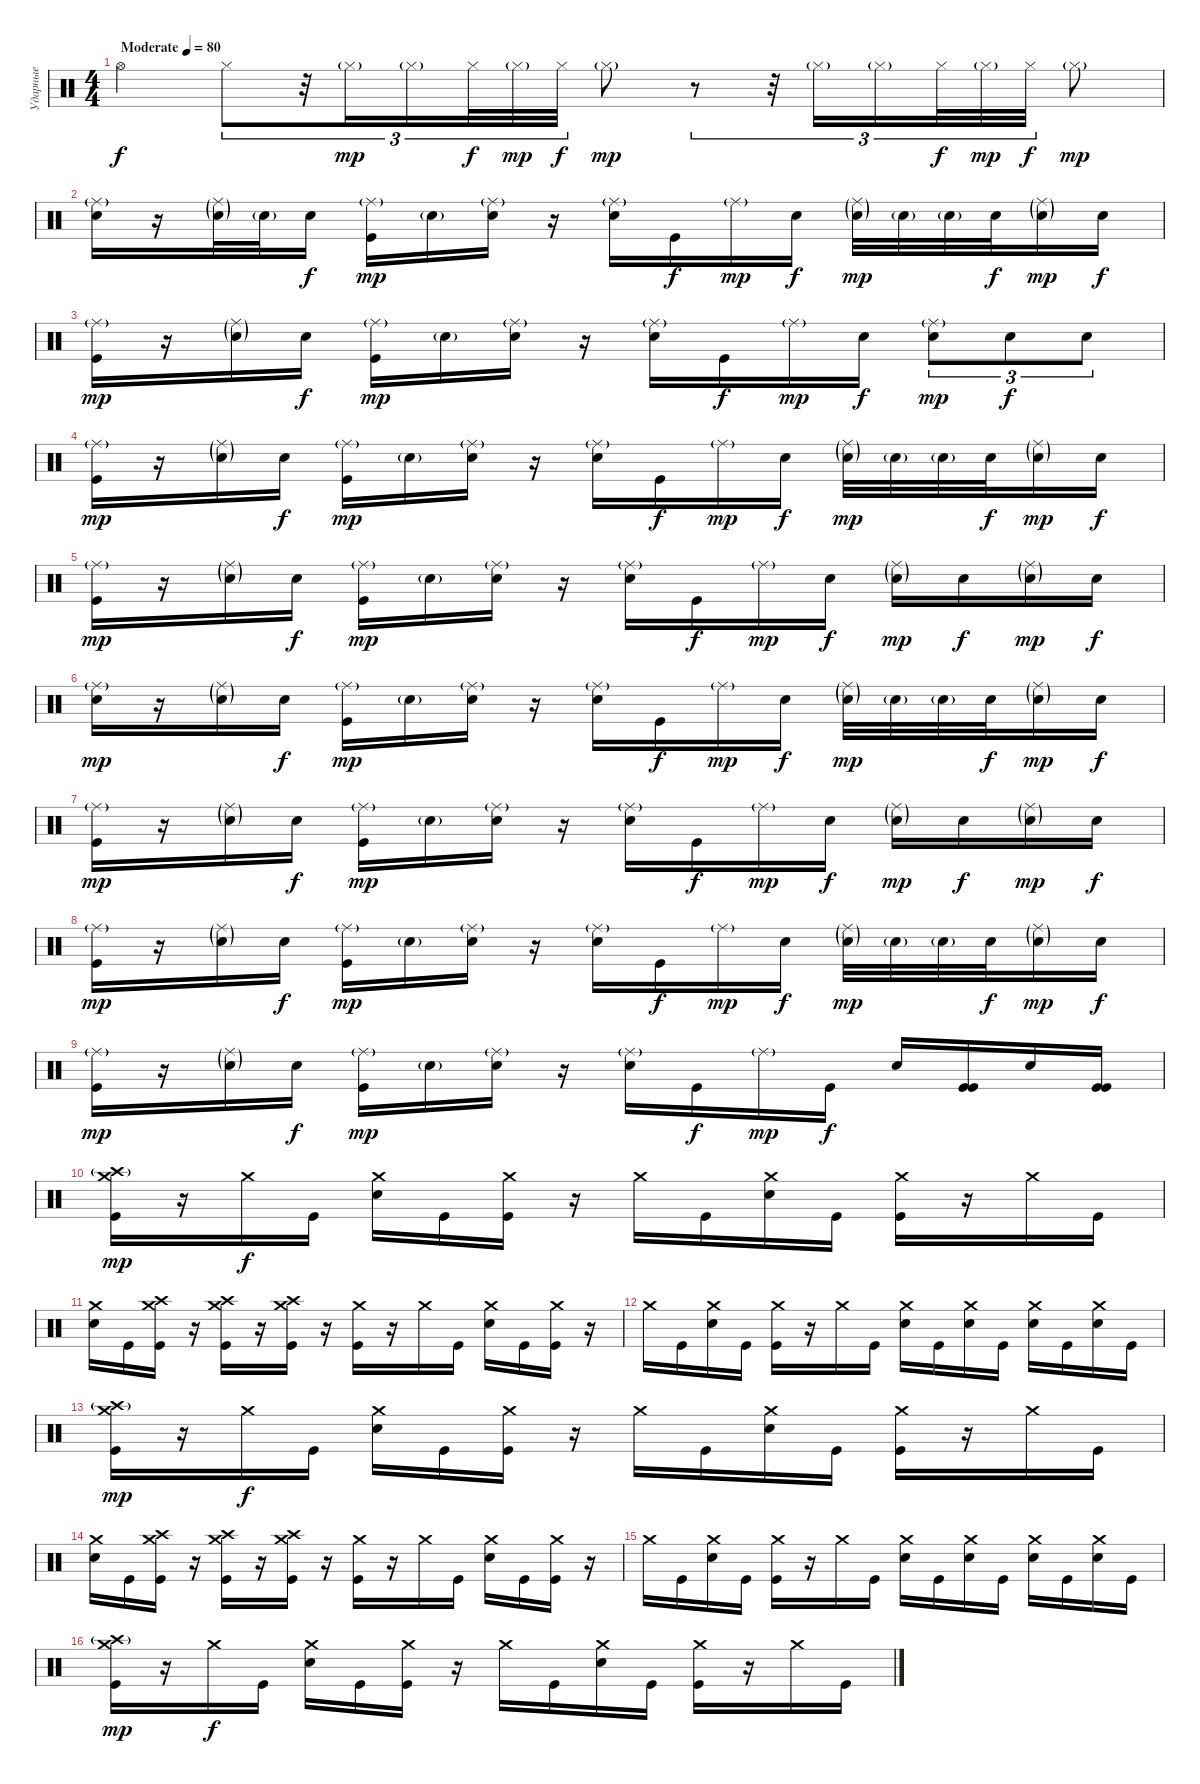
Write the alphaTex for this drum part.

\track ("Ударные" "Ударные") {instrument percussion}
\staff {score}
\articulation defaults
\ts (4 4)
\tempo (80 "Moderate")
\clef neutral
\ks c "Hi-Hat (open)".4{dy f} "Hi-Hat (closed)".8{tu (3 2)}
r.32{tu (3 2)} "Hi-Hat (closed)"{g}.16{tu (3 2) dy mp} "Hi-Hat (closed)"{g}.16{tu (3 2)} "Hi-Hat (closed)".32{tu (3 2) dy f} "Hi-Hat (closed)"{g}.32{tu (3 2) dy mp} "Hi-Hat (closed)".32{tu (3 2) dy f} "Hi-Hat (closed)"{g}.8{dy mp} r.8{tu (3 2)} r.32{tu (3 2)} "Hi-Hat (closed)"{g}.16{tu (3 2)} "Hi-Hat (closed)"{g}.16{tu (3 2)} "Hi-Hat (closed)".32{tu (3 2) dy f} "Hi-Hat (closed)"{g}.32{tu (3 2) dy mp} "Hi-Hat (closed)".32{tu (3 2) dy f} "Hi-Hat (closed)"{g}.8{dy mp} |
("Ride (middle)"{g} "Electric Snare (hit)").16 r.16 ("Ride (middle)"{g} "Electric Snare (hit)"{g}).32 "Electric Snare (hit)"{g}.32 "Electric Snare (hit)".16{dy f} ("Ride (middle)"{g} "Kick (hit)").16{dy mp} "Electric Snare (hit)"{g}.16 ("Ride (middle)"{g} "Electric Snare (hit)").16 r.16 ("Ride (middle)"{g} "Electric Snare (hit)").16 "Kick (hit)".16{dy f} "Ride (middle)"{g}.16{dy mp} "Electric Snare (hit)".16{dy f} ("Ride (middle)"{g} "Electric Snare (hit)"{g}).32{dy mp} "Electric Snare (hit)"{g}.32 "Electric Snare (hit)"{g}.32 "Electric Snare (hit)".32{dy f} ("Ride (middle)"{g} "Electric Snare (hit)"{g}).16{dy mp} "Electric Snare (hit)".16{dy f} |
("Ride (middle)"{g} "Kick (hit)").16{dy mp} r.16 ("Ride (middle)"{g} "Electric Snare (hit)"{g}).16 "Electric Snare (hit)".16{dy f} ("Ride (middle)"{g} "Kick (hit)").16{dy mp} "Electric Snare (hit)"{g}.16 ("Ride (middle)"{g} "Electric Snare (hit)").16 r.16 ("Ride (middle)"{g} "Electric Snare (hit)").16 "Kick (hit)".16{dy f} "Ride (middle)"{g}.16{dy mp} "Electric Snare (hit)".16{dy f} ("Ride (middle)"{g} "Electric Snare (hit)").8{tu (3 2) dy mp} "Electric Snare (hit)".8{tu (3 2) dy f} "Electric Snare (hit)".8{tu (3 2)} |
("Ride (middle)"{g} "Kick (hit)").16{dy mp} r.16 ("Ride (middle)"{g} "Electric Snare (hit)"{g}).16 "Electric Snare (hit)".16{dy f} ("Ride (middle)"{g} "Kick (hit)").16{dy mp} "Electric Snare (hit)"{g}.16 ("Ride (middle)"{g} "Electric Snare (hit)").16 r.16 ("Ride (middle)"{g} "Electric Snare (hit)").16 "Kick (hit)".16{dy f} "Ride (middle)"{g}.16{dy mp} "Electric Snare (hit)".16{dy f} ("Ride (middle)"{g} "Electric Snare (hit)"{g}).32{dy mp} "Electric Snare (hit)"{g}.32 "Electric Snare (hit)"{g}.32 "Electric Snare (hit)".32{dy f} ("Ride (middle)"{g} "Electric Snare (hit)"{g}).16{dy mp} "Electric Snare (hit)".16{dy f} |
("Ride (middle)"{g} "Kick (hit)").16{dy mp} r.16 ("Ride (middle)"{g} "Electric Snare (hit)"{g}).16 "Electric Snare (hit)".16{dy f} ("Ride (middle)"{g} "Kick (hit)").16{dy mp} "Electric Snare (hit)"{g}.16 ("Ride (middle)"{g} "Electric Snare (hit)").16 r.16 ("Ride (middle)"{g} "Electric Snare (hit)").16 "Kick (hit)".16{dy f} "Ride (middle)"{g}.16{dy mp} "Electric Snare (hit)".16{dy f} ("Ride (middle)"{g} "Electric Snare (hit)"{g}).16{dy mp} "Electric Snare (hit)".16{dy f} ("Ride (middle)"{g} "Electric Snare (hit)"{g}).16{dy mp} "Electric Snare (hit)".16{dy f} |
("Ride (middle)"{g} "Electric Snare (hit)").16{dy mp} r.16 ("Ride (middle)"{g} "Electric Snare (hit)"{g}).16 "Electric Snare (hit)".16{dy f} ("Ride (middle)"{g} "Kick (hit)").16{dy mp} "Electric Snare (hit)"{g}.16 ("Ride (middle)"{g} "Electric Snare (hit)").16 r.16 ("Ride (middle)"{g} "Electric Snare (hit)").16 "Kick (hit)".16{dy f} "Ride (middle)"{g}.16{dy mp} "Electric Snare (hit)".16{dy f} ("Ride (middle)"{g} "Electric Snare (hit)"{g}).32{dy mp} "Electric Snare (hit)"{g}.32 "Electric Snare (hit)"{g}.32 "Electric Snare (hit)".32{dy f} ("Ride (middle)"{g} "Electric Snare (hit)"{g}).16{dy mp} "Electric Snare (hit)".16{dy f} |
("Ride (middle)"{g} "Kick (hit)").16{dy mp} r.16 ("Ride (middle)"{g} "Electric Snare (hit)"{g}).16 "Electric Snare (hit)".16{dy f} ("Ride (middle)"{g} "Kick (hit)").16{dy mp} "Electric Snare (hit)"{g}.16 ("Ride (middle)"{g} "Electric Snare (hit)").16 r.16 ("Ride (middle)"{g} "Electric Snare (hit)").16 "Kick (hit)".16{dy f} "Ride (middle)"{g}.16{dy mp} "Electric Snare (hit)".16{dy f} ("Ride (middle)"{g} "Electric Snare (hit)"{g}).16{dy mp} "Electric Snare (hit)".16{dy f} ("Ride (middle)"{g} "Electric Snare (hit)"{g}).16{dy mp} "Electric Snare (hit)".16{dy f} |
("Ride (middle)"{g} "Kick (hit)").16{dy mp} r.16 ("Ride (middle)"{g} "Electric Snare (hit)"{g}).16 "Electric Snare (hit)".16{dy f} ("Ride (middle)"{g} "Kick (hit)").16{dy mp} "Electric Snare (hit)"{g}.16 ("Ride (middle)"{g} "Electric Snare (hit)").16 r.16 ("Ride (middle)"{g} "Electric Snare (hit)").16 "Kick (hit)".16{dy f} "Ride (middle)"{g}.16{dy mp} "Electric Snare (hit)".16{dy f} ("Ride (middle)"{g} "Electric Snare (hit)"{g}).32{dy mp} "Electric Snare (hit)"{g}.32 "Electric Snare (hit)"{g}.32 "Electric Snare (hit)".32{dy f} ("Ride (middle)"{g} "Electric Snare (hit)"{g}).16{dy mp} "Electric Snare (hit)".16{dy f} |
("Ride (middle)"{g} "Kick (hit)").16{dy mp} r.16 ("Ride (middle)"{g} "Electric Snare (hit)"{g}).16 "Electric Snare (hit)".16{dy f} ("Ride (middle)"{g} "Kick (hit)").16{dy mp} "Electric Snare (hit)"{g}.16 ("Ride (middle)"{g} "Electric Snare (hit)").16 r.16 ("Ride (middle)"{g} "Electric Snare (hit)").16 "Kick (hit)".16{dy f} "Ride (middle)"{g}.16{dy mp} "Kick (hit)".16{dy f} "Electric Snare (hit)".16 ("Kick (hit)" "Kick (hit)").16 "Electric Snare (hit)".16 ("Kick (hit)" "Kick (hit)").16 |
("Crash high (hit)"{g} "Crash medium (hit)" "Kick (hit)").16{dy mp} r.16 "Crash medium (hit)".16{dy f} "Kick (hit)".16 ("Crash medium (hit)" "Electric Snare (hit)").16 "Kick (hit)".16 ("Crash medium (hit)" "Kick (hit)").16 r.16 "Crash medium (hit)".16 "Kick (hit)".16 ("Crash medium (hit)" "Electric Snare (hit)").16 "Kick (hit)".16 ("Crash medium (hit)" "Kick (hit)").16 r.16 "Crash medium (hit)".16 "Kick (hit)".16 |
("Crash medium (hit)" "Electric Snare (hit)").16 "Kick (hit)".16 ("Crash high (hit)" "Crash medium (hit)" "Kick (hit)").16 r.16 ("Crash high (hit)" "Crash medium (hit)" "Kick (hit)").16 r.16 ("Crash high (hit)" "Crash medium (hit)" "Kick (hit)").16 r.16 ("Crash medium (hit)" "Kick (hit)").16 r.16 "Crash medium (hit)".16 "Kick (hit)".16 ("Crash medium (hit)" "Electric Snare (hit)").16 "Kick (hit)".16 ("Crash medium (hit)" "Kick (hit)").16 r.16 |
"Crash medium (hit)".16 "Kick (hit)".16 ("Crash medium (hit)" "Electric Snare (hit)").16 "Kick (hit)".16 ("Crash medium (hit)" "Kick (hit)").16 r.16 "Crash medium (hit)".16 "Kick (hit)".16 ("Crash medium (hit)" "Electric Snare (hit)").16 "Kick (hit)".16 ("Crash medium (hit)" "Electric Snare (hit)").16 "Kick (hit)".16 ("Crash medium (hit)" "Electric Snare (hit)").16 "Kick (hit)".16 ("Crash medium (hit)" "Electric Snare (hit)").16 "Kick (hit)".16 |
("Crash high (hit)"{g} "Crash medium (hit)" "Kick (hit)").16{dy mp} r.16 "Crash medium (hit)".16{dy f} "Kick (hit)".16 ("Crash medium (hit)" "Electric Snare (hit)").16 "Kick (hit)".16 ("Crash medium (hit)" "Kick (hit)").16 r.16 "Crash medium (hit)".16 "Kick (hit)".16 ("Crash medium (hit)" "Electric Snare (hit)").16 "Kick (hit)".16 ("Crash medium (hit)" "Kick (hit)").16 r.16 "Crash medium (hit)".16 "Kick (hit)".16 |
("Crash medium (hit)" "Electric Snare (hit)").16 "Kick (hit)".16 ("Crash high (hit)" "Crash medium (hit)" "Kick (hit)").16 r.16 ("Crash high (hit)" "Crash medium (hit)" "Kick (hit)").16 r.16 ("Crash high (hit)" "Crash medium (hit)" "Kick (hit)").16 r.16 ("Crash medium (hit)" "Kick (hit)").16 r.16 "Crash medium (hit)".16 "Kick (hit)".16 ("Crash medium (hit)" "Electric Snare (hit)").16 "Kick (hit)".16 ("Crash medium (hit)" "Kick (hit)").16 r.16 |
"Crash medium (hit)".16 "Kick (hit)".16 ("Crash medium (hit)" "Electric Snare (hit)").16 "Kick (hit)".16 ("Crash medium (hit)" "Kick (hit)").16 r.16 "Crash medium (hit)".16 "Kick (hit)".16 ("Crash medium (hit)" "Electric Snare (hit)").16 "Kick (hit)".16 ("Crash medium (hit)" "Electric Snare (hit)").16 "Kick (hit)".16 ("Crash medium (hit)" "Electric Snare (hit)").16 "Kick (hit)".16 ("Crash medium (hit)" "Electric Snare (hit)").16 "Kick (hit)".16 |
("Crash high (hit)"{g} "Crash medium (hit)" "Kick (hit)").16{dy mp} r.16 "Crash medium (hit)".16{dy f} "Kick (hit)".16 ("Crash medium (hit)" "Electric Snare (hit)").16 "Kick (hit)".16 ("Crash medium (hit)" "Kick (hit)").16 r.16 "Crash medium (hit)".16 "Kick (hit)".16 ("Crash medium (hit)" "Electric Snare (hit)").16 "Kick (hit)".16 ("Crash medium (hit)" "Kick (hit)").16 r.16 "Crash medium (hit)".16 "Kick (hit)".16
